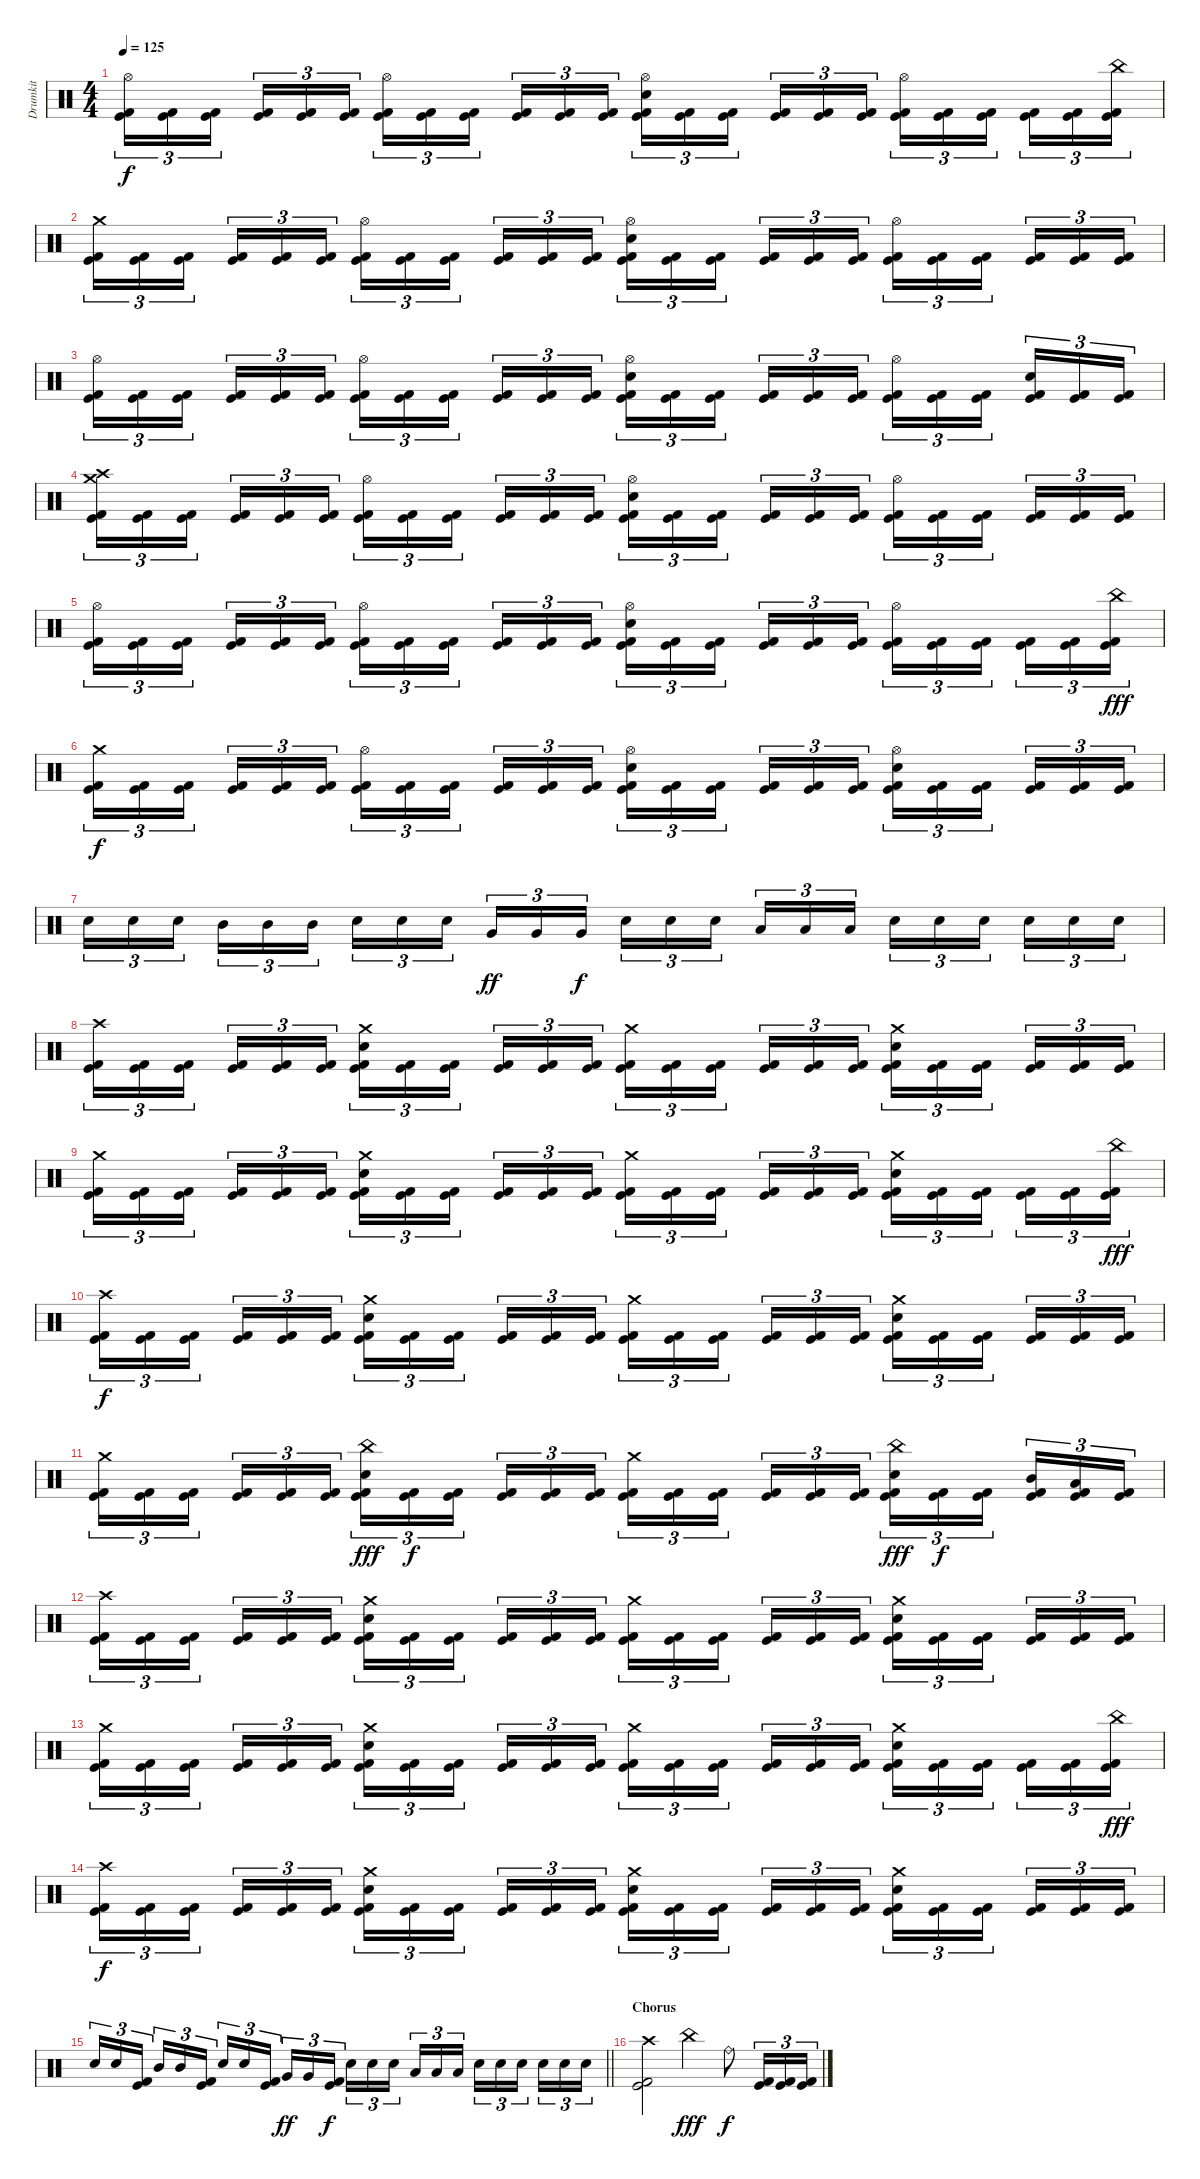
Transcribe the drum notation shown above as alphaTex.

\track ("Drumkit" "Drumkit") {instrument percussion}
\staff {score}
\articulation defaults
\ts (4 4)
\tempo 125
\clef neutral
\ks c
("Hi-Hat (open)" "Kick (hit)" "Kick (hit) 2").16{tu (3 2) dy f} ("Kick (hit)" "Kick (hit) 2").16{tu (3 2)} ("Kick (hit)" "Kick (hit) 2").16{tu (3 2) beam splitsecondary} ("Kick (hit)" "Kick (hit) 2").16{tu (3 2)} ("Kick (hit)" "Kick (hit) 2").16{tu (3 2)} ("Kick (hit)" "Kick (hit) 2").16{tu (3 2)} ("Hi-Hat (open)" "Kick (hit)" "Kick (hit) 2").16{tu (3 2)} ("Kick (hit)" "Kick (hit) 2").16{tu (3 2)} ("Kick (hit)" "Kick (hit) 2").16{tu (3 2) beam splitsecondary} ("Kick (hit)" "Kick (hit) 2").16{tu (3 2)} ("Kick (hit)" "Kick (hit) 2").16{tu (3 2)} ("Kick (hit)" "Kick (hit) 2").16{tu (3 2)} ("Hi-Hat (open)" "Electric Snare (hit)" "Kick (hit)" "Kick (hit) 2").16{tu (3 2)} ("Kick (hit)" "Kick (hit) 2").16{tu (3 2)} ("Kick (hit)" "Kick (hit) 2").16{tu (3 2) beam splitsecondary} ("Kick (hit)" "Kick (hit) 2").16{tu (3 2)} ("Kick (hit)" "Kick (hit) 2").16{tu (3 2)} ("Kick (hit)" "Kick (hit) 2").16{tu (3 2)} ("Hi-Hat (open)" "Kick (hit)" "Kick (hit) 2").16{tu (3 2)} ("Kick (hit)" "Kick (hit) 2").16{tu (3 2)} ("Kick (hit)" "Kick (hit) 2").16{tu (3 2) beam splitsecondary} ("Kick (hit)" "Kick (hit) 2").16{tu (3 2)} ("Kick (hit)" "Kick (hit) 2").16{tu (3 2)} ("China (hit)" "Kick (hit)" "Kick (hit) 2").16{tu (3 2)} |
("Crash medium (hit)" "Kick (hit)" "Kick (hit) 2").16{tu (3 2)} ("Kick (hit)" "Kick (hit) 2").16{tu (3 2)} ("Kick (hit)" "Kick (hit) 2").16{tu (3 2) beam splitsecondary} ("Kick (hit)" "Kick (hit) 2").16{tu (3 2)} ("Kick (hit)" "Kick (hit) 2").16{tu (3 2)} ("Kick (hit)" "Kick (hit) 2").16{tu (3 2)} ("Hi-Hat (open)" "Kick (hit)" "Kick (hit) 2").16{tu (3 2)} ("Kick (hit)" "Kick (hit) 2").16{tu (3 2)} ("Kick (hit)" "Kick (hit) 2").16{tu (3 2) beam splitsecondary} ("Kick (hit)" "Kick (hit) 2").16{tu (3 2)} ("Kick (hit)" "Kick (hit) 2").16{tu (3 2)} ("Kick (hit)" "Kick (hit) 2").16{tu (3 2)} ("Hi-Hat (open)" "Electric Snare (hit)" "Kick (hit)" "Kick (hit) 2").16{tu (3 2)} ("Kick (hit)" "Kick (hit) 2").16{tu (3 2)} ("Kick (hit)" "Kick (hit) 2").16{tu (3 2) beam splitsecondary} ("Kick (hit)" "Kick (hit) 2").16{tu (3 2)} ("Kick (hit)" "Kick (hit) 2").16{tu (3 2)} ("Kick (hit)" "Kick (hit) 2").16{tu (3 2)} ("Hi-Hat (open)" "Kick (hit)" "Kick (hit) 2").16{tu (3 2)} ("Kick (hit)" "Kick (hit) 2").16{tu (3 2)} ("Kick (hit)" "Kick (hit) 2").16{tu (3 2) beam splitsecondary} ("Kick (hit)" "Kick (hit) 2").16{tu (3 2)} ("Kick (hit)" "Kick (hit) 2").16{tu (3 2)} ("Kick (hit)" "Kick (hit) 2").16{tu (3 2)} |
("Hi-Hat (open)" "Kick (hit)" "Kick (hit) 2").16{tu (3 2)} ("Kick (hit)" "Kick (hit) 2").16{tu (3 2)} ("Kick (hit)" "Kick (hit) 2").16{tu (3 2) beam splitsecondary} ("Kick (hit)" "Kick (hit) 2").16{tu (3 2)} ("Kick (hit)" "Kick (hit) 2").16{tu (3 2)} ("Kick (hit)" "Kick (hit) 2").16{tu (3 2)} ("Hi-Hat (open)" "Kick (hit)" "Kick (hit) 2").16{tu (3 2)} ("Kick (hit)" "Kick (hit) 2").16{tu (3 2)} ("Kick (hit)" "Kick (hit) 2").16{tu (3 2) beam splitsecondary} ("Kick (hit)" "Kick (hit) 2").16{tu (3 2)} ("Kick (hit)" "Kick (hit) 2").16{tu (3 2)} ("Kick (hit)" "Kick (hit) 2").16{tu (3 2)} ("Hi-Hat (open)" "Electric Snare (hit)" "Kick (hit)" "Kick (hit) 2").16{tu (3 2)} ("Kick (hit)" "Kick (hit) 2").16{tu (3 2)} ("Kick (hit)" "Kick (hit) 2").16{tu (3 2) beam splitsecondary} ("Kick (hit)" "Kick (hit) 2").16{tu (3 2)} ("Kick (hit)" "Kick (hit) 2").16{tu (3 2)} ("Kick (hit)" "Kick (hit) 2").16{tu (3 2)} ("Hi-Hat (open)" "Kick (hit)" "Kick (hit) 2").16{tu (3 2)} ("Kick (hit)" "Kick (hit) 2").16{tu (3 2)} ("Kick (hit)" "Kick (hit) 2").16{tu (3 2) beam splitsecondary} ("Electric Snare (hit)" "Kick (hit)" "Kick (hit) 2").16{tu (3 2)} ("Kick (hit)" "Kick (hit) 2").16{tu (3 2)} ("Kick (hit)" "Kick (hit) 2").16{tu (3 2)} |
("Crash high (hit)" "Crash medium (hit)" "Kick (hit)" "Kick (hit) 2").16{tu (3 2)} ("Kick (hit)" "Kick (hit) 2").16{tu (3 2)} ("Kick (hit)" "Kick (hit) 2").16{tu (3 2) beam splitsecondary} ("Kick (hit)" "Kick (hit) 2").16{tu (3 2)} ("Kick (hit)" "Kick (hit) 2").16{tu (3 2)} ("Kick (hit)" "Kick (hit) 2").16{tu (3 2)} ("Hi-Hat (open)" "Kick (hit)" "Kick (hit) 2").16{tu (3 2)} ("Kick (hit)" "Kick (hit) 2").16{tu (3 2)} ("Kick (hit)" "Kick (hit) 2").16{tu (3 2) beam splitsecondary} ("Kick (hit)" "Kick (hit) 2").16{tu (3 2)} ("Kick (hit)" "Kick (hit) 2").16{tu (3 2)} ("Kick (hit)" "Kick (hit) 2").16{tu (3 2)} ("Hi-Hat (open)" "Electric Snare (hit)" "Kick (hit)" "Kick (hit) 2").16{tu (3 2)} ("Kick (hit)" "Kick (hit) 2").16{tu (3 2)} ("Kick (hit)" "Kick (hit) 2").16{tu (3 2) beam splitsecondary} ("Kick (hit)" "Kick (hit) 2").16{tu (3 2)} ("Kick (hit)" "Kick (hit) 2").16{tu (3 2)} ("Kick (hit)" "Kick (hit) 2").16{tu (3 2)} ("Hi-Hat (open)" "Kick (hit)" "Kick (hit) 2").16{tu (3 2)} ("Kick (hit)" "Kick (hit) 2").16{tu (3 2)} ("Kick (hit)" "Kick (hit) 2").16{tu (3 2) beam splitsecondary} ("Kick (hit)" "Kick (hit) 2").16{tu (3 2)} ("Kick (hit)" "Kick (hit) 2").16{tu (3 2)} ("Kick (hit)" "Kick (hit) 2").16{tu (3 2)} |
("Hi-Hat (open)" "Kick (hit)" "Kick (hit) 2").16{tu (3 2)} ("Kick (hit)" "Kick (hit) 2").16{tu (3 2)} ("Kick (hit)" "Kick (hit) 2").16{tu (3 2) beam splitsecondary} ("Kick (hit)" "Kick (hit) 2").16{tu (3 2)} ("Kick (hit)" "Kick (hit) 2").16{tu (3 2)} ("Kick (hit)" "Kick (hit) 2").16{tu (3 2)} ("Hi-Hat (open)" "Kick (hit)" "Kick (hit) 2").16{tu (3 2)} ("Kick (hit)" "Kick (hit) 2").16{tu (3 2)} ("Kick (hit)" "Kick (hit) 2").16{tu (3 2) beam splitsecondary} ("Kick (hit)" "Kick (hit) 2").16{tu (3 2)} ("Kick (hit)" "Kick (hit) 2").16{tu (3 2)} ("Kick (hit)" "Kick (hit) 2").16{tu (3 2)} ("Hi-Hat (open)" "Electric Snare (hit)" "Kick (hit)" "Kick (hit) 2").16{tu (3 2)} ("Kick (hit)" "Kick (hit) 2").16{tu (3 2)} ("Kick (hit)" "Kick (hit) 2").16{tu (3 2) beam splitsecondary} ("Kick (hit)" "Kick (hit) 2").16{tu (3 2)} ("Kick (hit)" "Kick (hit) 2").16{tu (3 2)} ("Kick (hit)" "Kick (hit) 2").16{tu (3 2)} ("Hi-Hat (open)" "Kick (hit)" "Kick (hit) 2").16{tu (3 2)} ("Kick (hit)" "Kick (hit) 2").16{tu (3 2)} ("Kick (hit)" "Kick (hit) 2").16{tu (3 2) beam splitsecondary} ("Kick (hit)" "Kick (hit) 2").16{tu (3 2)} ("Kick (hit)" "Kick (hit) 2").16{tu (3 2)} ("China (hit)" "Kick (hit)" "Kick (hit) 2").16{tu (3 2) dy fff} |
("Crash medium (hit)" "Kick (hit)" "Kick (hit) 2").16{tu (3 2) dy f} ("Kick (hit)" "Kick (hit) 2").16{tu (3 2)} ("Kick (hit)" "Kick (hit) 2").16{tu (3 2) beam splitsecondary} ("Kick (hit)" "Kick (hit) 2").16{tu (3 2)} ("Kick (hit)" "Kick (hit) 2").16{tu (3 2)} ("Kick (hit)" "Kick (hit) 2").16{tu (3 2)} ("Hi-Hat (open)" "Kick (hit)" "Kick (hit) 2").16{tu (3 2)} ("Kick (hit)" "Kick (hit) 2").16{tu (3 2)} ("Kick (hit)" "Kick (hit) 2").16{tu (3 2) beam splitsecondary} ("Kick (hit)" "Kick (hit) 2").16{tu (3 2)} ("Kick (hit)" "Kick (hit) 2").16{tu (3 2)} ("Kick (hit)" "Kick (hit) 2").16{tu (3 2)} ("Hi-Hat (open)" "Electric Snare (hit)" "Kick (hit)" "Kick (hit) 2").16{tu (3 2)} ("Kick (hit)" "Kick (hit) 2").16{tu (3 2)} ("Kick (hit)" "Kick (hit) 2").16{tu (3 2) beam splitsecondary} ("Kick (hit)" "Kick (hit) 2").16{tu (3 2)} ("Kick (hit)" "Kick (hit) 2").16{tu (3 2)} ("Kick (hit)" "Kick (hit) 2").16{tu (3 2)} ("Hi-Hat (open)" "Electric Snare (hit)" "Kick (hit)" "Kick (hit) 2").16{tu (3 2)} ("Kick (hit)" "Kick (hit) 2").16{tu (3 2)} ("Kick (hit)" "Kick (hit) 2").16{tu (3 2) beam splitsecondary} ("Kick (hit)" "Kick (hit) 2").16{tu (3 2)} ("Kick (hit)" "Kick (hit) 2").16{tu (3 2)} ("Kick (hit)" "Kick (hit) 2").16{tu (3 2)} |
"Electric Snare (hit)".16{tu (3 2)} "Electric Snare (hit)".16{tu (3 2)} "Electric Snare (hit)".16{tu (3 2) beam splitsecondary} "Mid Tom (hit)".16{tu (3 2)} "Mid Tom (hit)".16{tu (3 2)} "Mid Tom (hit)".16{tu (3 2)} "Electric Snare (hit)".16{tu (3 2)} "Electric Snare (hit)".16{tu (3 2)} "Electric Snare (hit)".16{tu (3 2) beam splitsecondary} "Very Low Tom (hit)".16{tu (3 2) dy ff} "Very Low Tom (hit)".16{tu (3 2)} "Very Low Tom (hit)".16{tu (3 2) dy f} "Electric Snare (hit)".16{tu (3 2)} "Electric Snare (hit)".16{tu (3 2)} "Electric Snare (hit)".16{tu (3 2) beam splitsecondary} "Low Tom (hit)".16{tu (3 2)} "Low Tom (hit)".16{tu (3 2)} "Low Tom (hit)".16{tu (3 2)} "Electric Snare (hit)".16{tu (3 2)} "Electric Snare (hit)".16{tu (3 2)} "Electric Snare (hit)".16{tu (3 2) beam splitsecondary} "Electric Snare (hit)".16{tu (3 2)} "Electric Snare (hit)".16{tu (3 2)} "Electric Snare (hit)".16{tu (3 2)} |
("Crash high (hit)" "Kick (hit)" "Kick (hit) 2").16{tu (3 2)} ("Kick (hit)" "Kick (hit) 2").16{tu (3 2)} ("Kick (hit)" "Kick (hit) 2").16{tu (3 2) beam splitsecondary} ("Kick (hit)" "Kick (hit) 2").16{tu (3 2)} ("Kick (hit)" "Kick (hit) 2").16{tu (3 2)} ("Kick (hit)" "Kick (hit) 2").16{tu (3 2)} ("Crash medium (hit)" "Electric Snare (hit)" "Kick (hit)" "Kick (hit) 2").16{tu (3 2)} ("Kick (hit)" "Kick (hit) 2").16{tu (3 2)} ("Kick (hit)" "Kick (hit) 2").16{tu (3 2) beam splitsecondary} ("Kick (hit)" "Kick (hit) 2").16{tu (3 2)} ("Kick (hit)" "Kick (hit) 2").16{tu (3 2)} ("Kick (hit)" "Kick (hit) 2").16{tu (3 2)} ("Crash medium (hit)" "Kick (hit)" "Kick (hit) 2").16{tu (3 2)} ("Kick (hit)" "Kick (hit) 2").16{tu (3 2)} ("Kick (hit)" "Kick (hit) 2").16{tu (3 2) beam splitsecondary} ("Kick (hit)" "Kick (hit) 2").16{tu (3 2)} ("Kick (hit)" "Kick (hit) 2").16{tu (3 2)} ("Kick (hit)" "Kick (hit) 2").16{tu (3 2)} ("Crash medium (hit)" "Electric Snare (hit)" "Kick (hit)" "Kick (hit) 2").16{tu (3 2)} ("Kick (hit)" "Kick (hit) 2").16{tu (3 2)} ("Kick (hit)" "Kick (hit) 2").16{tu (3 2) beam splitsecondary} ("Kick (hit)" "Kick (hit) 2").16{tu (3 2)} ("Kick (hit)" "Kick (hit) 2").16{tu (3 2)} ("Kick (hit)" "Kick (hit) 2").16{tu (3 2)} |
("Crash medium (hit)" "Kick (hit)" "Kick (hit) 2").16{tu (3 2)} ("Kick (hit)" "Kick (hit) 2").16{tu (3 2)} ("Kick (hit)" "Kick (hit) 2").16{tu (3 2) beam splitsecondary} ("Kick (hit)" "Kick (hit) 2").16{tu (3 2)} ("Kick (hit)" "Kick (hit) 2").16{tu (3 2)} ("Kick (hit)" "Kick (hit) 2").16{tu (3 2)} ("Crash medium (hit)" "Electric Snare (hit)" "Kick (hit)" "Kick (hit) 2").16{tu (3 2)} ("Kick (hit)" "Kick (hit) 2").16{tu (3 2)} ("Kick (hit)" "Kick (hit) 2").16{tu (3 2) beam splitsecondary} ("Kick (hit)" "Kick (hit) 2").16{tu (3 2)} ("Kick (hit)" "Kick (hit) 2").16{tu (3 2)} ("Kick (hit)" "Kick (hit) 2").16{tu (3 2)} ("Crash medium (hit)" "Kick (hit)" "Kick (hit) 2").16{tu (3 2)} ("Kick (hit)" "Kick (hit) 2").16{tu (3 2)} ("Kick (hit)" "Kick (hit) 2").16{tu (3 2) beam splitsecondary} ("Kick (hit)" "Kick (hit) 2").16{tu (3 2)} ("Kick (hit)" "Kick (hit) 2").16{tu (3 2)} ("Kick (hit)" "Kick (hit) 2").16{tu (3 2)} ("Crash medium (hit)" "Electric Snare (hit)" "Kick (hit)" "Kick (hit) 2").16{tu (3 2)} ("Kick (hit)" "Kick (hit) 2").16{tu (3 2)} ("Kick (hit)" "Kick (hit) 2").16{tu (3 2) beam splitsecondary} ("Kick (hit)" "Kick (hit) 2").16{tu (3 2)} ("Kick (hit)" "Kick (hit) 2").16{tu (3 2)} ("China (hit)" "Kick (hit)" "Kick (hit) 2").16{tu (3 2) dy fff} |
("Crash high (hit)" "Kick (hit)" "Kick (hit) 2").16{tu (3 2) dy f} ("Kick (hit)" "Kick (hit) 2").16{tu (3 2)} ("Kick (hit)" "Kick (hit) 2").16{tu (3 2) beam splitsecondary} ("Kick (hit)" "Kick (hit) 2").16{tu (3 2)} ("Kick (hit)" "Kick (hit) 2").16{tu (3 2)} ("Kick (hit)" "Kick (hit) 2").16{tu (3 2)} ("Crash medium (hit)" "Electric Snare (hit)" "Kick (hit)" "Kick (hit) 2").16{tu (3 2)} ("Kick (hit)" "Kick (hit) 2").16{tu (3 2)} ("Kick (hit)" "Kick (hit) 2").16{tu (3 2) beam splitsecondary} ("Kick (hit)" "Kick (hit) 2").16{tu (3 2)} ("Kick (hit)" "Kick (hit) 2").16{tu (3 2)} ("Kick (hit)" "Kick (hit) 2").16{tu (3 2)} ("Crash medium (hit)" "Kick (hit)" "Kick (hit) 2").16{tu (3 2)} ("Kick (hit)" "Kick (hit) 2").16{tu (3 2)} ("Kick (hit)" "Kick (hit) 2").16{tu (3 2) beam splitsecondary} ("Kick (hit)" "Kick (hit) 2").16{tu (3 2)} ("Kick (hit)" "Kick (hit) 2").16{tu (3 2)} ("Kick (hit)" "Kick (hit) 2").16{tu (3 2)} ("Crash medium (hit)" "Electric Snare (hit)" "Kick (hit)" "Kick (hit) 2").16{tu (3 2)} ("Kick (hit)" "Kick (hit) 2").16{tu (3 2)} ("Kick (hit)" "Kick (hit) 2").16{tu (3 2) beam splitsecondary} ("Kick (hit)" "Kick (hit) 2").16{tu (3 2)} ("Kick (hit)" "Kick (hit) 2").16{tu (3 2)} ("Kick (hit)" "Kick (hit) 2").16{tu (3 2)} |
("Crash medium (hit)" "Kick (hit)" "Kick (hit) 2").16{tu (3 2)} ("Kick (hit)" "Kick (hit) 2").16{tu (3 2)} ("Kick (hit)" "Kick (hit) 2").16{tu (3 2) beam splitsecondary} ("Kick (hit)" "Kick (hit) 2").16{tu (3 2)} ("Kick (hit)" "Kick (hit) 2").16{tu (3 2)} ("Kick (hit)" "Kick (hit) 2").16{tu (3 2)} ("China (hit)" "Electric Snare (hit)" "Kick (hit)" "Kick (hit) 2").16{tu (3 2) dy fff} ("Kick (hit)" "Kick (hit) 2").16{tu (3 2) dy f} ("Kick (hit)" "Kick (hit) 2").16{tu (3 2) beam splitsecondary} ("Kick (hit)" "Kick (hit) 2").16{tu (3 2)} ("Kick (hit)" "Kick (hit) 2").16{tu (3 2)} ("Kick (hit)" "Kick (hit) 2").16{tu (3 2)} ("Crash medium (hit)" "Kick (hit)" "Kick (hit) 2").16{tu (3 2)} ("Kick (hit)" "Kick (hit) 2").16{tu (3 2)} ("Kick (hit)" "Kick (hit) 2").16{tu (3 2) beam splitsecondary} ("Kick (hit)" "Kick (hit) 2").16{tu (3 2)} ("Kick (hit)" "Kick (hit) 2").16{tu (3 2)} ("Kick (hit)" "Kick (hit) 2").16{tu (3 2)} ("China (hit)" "Electric Snare (hit)" "Kick (hit)" "Kick (hit) 2").16{tu (3 2) dy fff} ("Kick (hit)" "Kick (hit) 2").16{tu (3 2) dy f} ("Kick (hit)" "Kick (hit) 2").16{tu (3 2) beam splitsecondary} ("Mid Tom (hit)" "Kick (hit)" "Kick (hit) 2").16{tu (3 2)} ("Low Tom (hit)" "Kick (hit)" "Kick (hit) 2").16{tu (3 2)} ("Kick (hit)" "Kick (hit) 2").16{tu (3 2)} |
("Crash high (hit)" "Kick (hit)" "Kick (hit) 2").16{tu (3 2)} ("Kick (hit)" "Kick (hit) 2").16{tu (3 2)} ("Kick (hit)" "Kick (hit) 2").16{tu (3 2) beam splitsecondary} ("Kick (hit)" "Kick (hit) 2").16{tu (3 2)} ("Kick (hit)" "Kick (hit) 2").16{tu (3 2)} ("Kick (hit)" "Kick (hit) 2").16{tu (3 2)} ("Crash medium (hit)" "Electric Snare (hit)" "Kick (hit)" "Kick (hit) 2").16{tu (3 2)} ("Kick (hit)" "Kick (hit) 2").16{tu (3 2)} ("Kick (hit)" "Kick (hit) 2").16{tu (3 2) beam splitsecondary} ("Kick (hit)" "Kick (hit) 2").16{tu (3 2)} ("Kick (hit)" "Kick (hit) 2").16{tu (3 2)} ("Kick (hit)" "Kick (hit) 2").16{tu (3 2)} ("Crash medium (hit)" "Kick (hit)" "Kick (hit) 2").16{tu (3 2)} ("Kick (hit)" "Kick (hit) 2").16{tu (3 2)} ("Kick (hit)" "Kick (hit) 2").16{tu (3 2) beam splitsecondary} ("Kick (hit)" "Kick (hit) 2").16{tu (3 2)} ("Kick (hit)" "Kick (hit) 2").16{tu (3 2)} ("Kick (hit)" "Kick (hit) 2").16{tu (3 2)} ("Crash medium (hit)" "Electric Snare (hit)" "Kick (hit)" "Kick (hit) 2").16{tu (3 2)} ("Kick (hit)" "Kick (hit) 2").16{tu (3 2)} ("Kick (hit)" "Kick (hit) 2").16{tu (3 2) beam splitsecondary} ("Kick (hit)" "Kick (hit) 2").16{tu (3 2)} ("Kick (hit)" "Kick (hit) 2").16{tu (3 2)} ("Kick (hit)" "Kick (hit) 2").16{tu (3 2)} |
("Crash medium (hit)" "Kick (hit)" "Kick (hit) 2").16{tu (3 2)} ("Kick (hit)" "Kick (hit) 2").16{tu (3 2)} ("Kick (hit)" "Kick (hit) 2").16{tu (3 2) beam splitsecondary} ("Kick (hit)" "Kick (hit) 2").16{tu (3 2)} ("Kick (hit)" "Kick (hit) 2").16{tu (3 2)} ("Kick (hit)" "Kick (hit) 2").16{tu (3 2)} ("Crash medium (hit)" "Electric Snare (hit)" "Kick (hit)" "Kick (hit) 2").16{tu (3 2)} ("Kick (hit)" "Kick (hit) 2").16{tu (3 2)} ("Kick (hit)" "Kick (hit) 2").16{tu (3 2) beam splitsecondary} ("Kick (hit)" "Kick (hit) 2").16{tu (3 2)} ("Kick (hit)" "Kick (hit) 2").16{tu (3 2)} ("Kick (hit)" "Kick (hit) 2").16{tu (3 2)} ("Crash medium (hit)" "Kick (hit)" "Kick (hit) 2").16{tu (3 2)} ("Kick (hit)" "Kick (hit) 2").16{tu (3 2)} ("Kick (hit)" "Kick (hit) 2").16{tu (3 2) beam splitsecondary} ("Kick (hit)" "Kick (hit) 2").16{tu (3 2)} ("Kick (hit)" "Kick (hit) 2").16{tu (3 2)} ("Kick (hit)" "Kick (hit) 2").16{tu (3 2)} ("Crash medium (hit)" "Electric Snare (hit)" "Kick (hit)" "Kick (hit) 2").16{tu (3 2)} ("Kick (hit)" "Kick (hit) 2").16{tu (3 2)} ("Kick (hit)" "Kick (hit) 2").16{tu (3 2) beam splitsecondary} ("Kick (hit)" "Kick (hit) 2").16{tu (3 2)} ("Kick (hit)" "Kick (hit) 2").16{tu (3 2)} ("China (hit)" "Kick (hit)" "Kick (hit) 2").16{tu (3 2) dy fff} |
("Crash high (hit)" "Kick (hit)" "Kick (hit) 2").16{tu (3 2) dy f} ("Kick (hit)" "Kick (hit) 2").16{tu (3 2)} ("Kick (hit)" "Kick (hit) 2").16{tu (3 2) beam splitsecondary} ("Kick (hit)" "Kick (hit) 2").16{tu (3 2)} ("Kick (hit)" "Kick (hit) 2").16{tu (3 2)} ("Kick (hit)" "Kick (hit) 2").16{tu (3 2)} ("Crash medium (hit)" "Electric Snare (hit)" "Kick (hit)" "Kick (hit) 2").16{tu (3 2)} ("Kick (hit)" "Kick (hit) 2").16{tu (3 2)} ("Kick (hit)" "Kick (hit) 2").16{tu (3 2) beam splitsecondary} ("Kick (hit)" "Kick (hit) 2").16{tu (3 2)} ("Kick (hit)" "Kick (hit) 2").16{tu (3 2)} ("Kick (hit)" "Kick (hit) 2").16{tu (3 2)} ("Crash medium (hit)" "Electric Snare (hit)" "Kick (hit)" "Kick (hit) 2").16{tu (3 2)} ("Kick (hit)" "Kick (hit) 2").16{tu (3 2)} ("Kick (hit)" "Kick (hit) 2").16{tu (3 2) beam splitsecondary} ("Kick (hit)" "Kick (hit) 2").16{tu (3 2)} ("Kick (hit)" "Kick (hit) 2").16{tu (3 2)} ("Kick (hit)" "Kick (hit) 2").16{tu (3 2)} ("Crash medium (hit)" "Electric Snare (hit)" "Kick (hit)" "Kick (hit) 2").16{tu (3 2)} ("Kick (hit)" "Kick (hit) 2").16{tu (3 2)} ("Kick (hit)" "Kick (hit) 2").16{tu (3 2) beam splitsecondary} ("Kick (hit)" "Kick (hit) 2").16{tu (3 2)} ("Kick (hit)" "Kick (hit) 2").16{tu (3 2)} ("Kick (hit)" "Kick (hit) 2").16{tu (3 2)} |
\barLineRight lightlight "Electric Snare (hit)".16{tu (3 2)} "Electric Snare (hit)".16{tu (3 2)}
("Kick (hit)" "Kick (hit) 2").16{tu (3 2) beam splitsecondary} "Mid Tom (hit)".16{tu (3 2)} "Mid Tom (hit)".16{tu (3 2)} ("Kick (hit)" "Kick (hit) 2").16{tu (3 2)} "Electric Snare (hit)".16{tu (3 2)} "Electric Snare (hit)".16{tu (3 2)} ("Kick (hit)" "Kick (hit) 2").16{tu (3 2) beam splitsecondary} "Very Low Tom (hit)".16{tu (3 2) dy ff} "Very Low Tom (hit)".16{tu (3 2)} ("Kick (hit)" "Kick (hit) 2").16{tu (3 2) dy f} "Electric Snare (hit)".16{tu (3 2)} "Electric Snare (hit)".16{tu (3 2)} "Electric Snare (hit)".16{tu (3 2) beam splitsecondary} "Low Tom (hit)".16{tu (3 2)} "Low Tom (hit)".16{tu (3 2)} "Low Tom (hit)".16{tu (3 2)} "Electric Snare (hit)".16{tu (3 2)} "Electric Snare (hit)".16{tu (3 2)} "Electric Snare (hit)".16{tu (3 2) beam splitsecondary} "Electric Snare (hit)".16{tu (3 2)} "Electric Snare (hit)".16{tu (3 2)} "Electric Snare (hit)".16{tu (3 2)} |
\section ("" "Chorus")
("Crash high (hit)" "Kick (hit)" "Kick (hit) 2").2 "China (hit)".4{dy fff} "Ride (bell)".8{dy f} ("Kick (hit)" "Kick (hit) 2").16{tu (3 2)} ("Kick (hit)" "Kick (hit) 2").16{tu (3 2)} ("Kick (hit)" "Kick (hit) 2").16{tu (3 2)}
